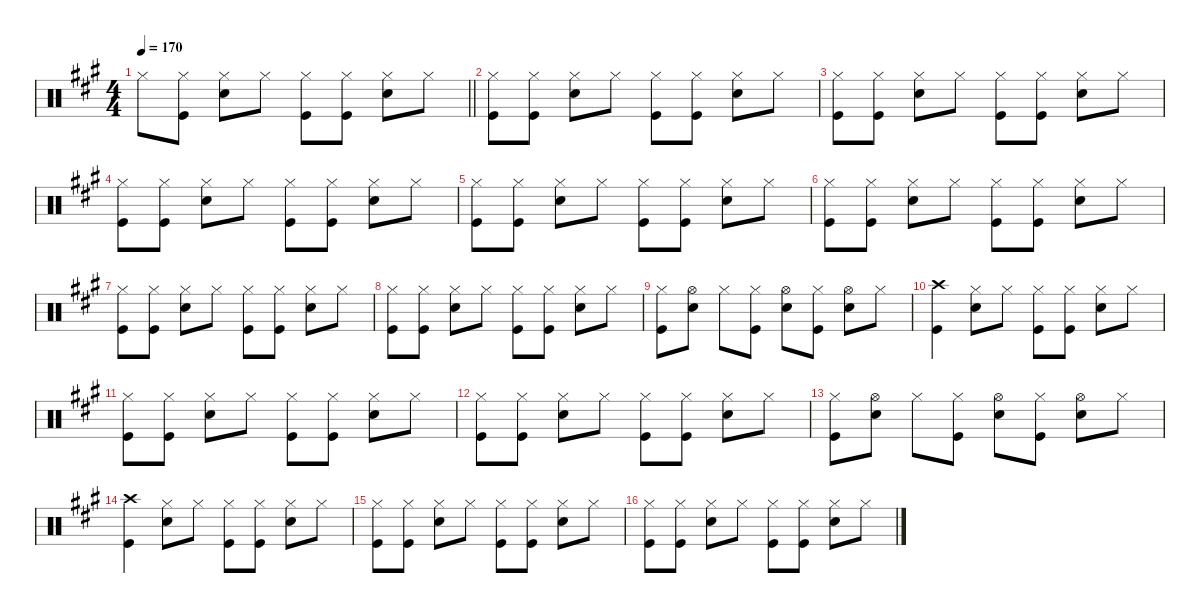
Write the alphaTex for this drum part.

\defaultSystemsLayout 4
\hideDynamics
\bracketExtendMode nobrackets
\singleTrackTrackNamePolicy hidden
\multiTrackTrackNamePolicy hidden
\firstSystemTrackNameMode fullname
\firstSystemTrackNameOrientation horizontal
\otherSystemsTrackNameOrientation horizontal
\track ("Percussion" "drm.") {defaultSystemsLayout 4 instrument percussion}
\staff {score}
\articulation defaults
\ts (4 4)
\tempo 170
\clef neutral
\barLineRight lightlight
\ks a "Hi-Hat (closed)"{acc forcenatural}.8{dy f beam Down}
("Hi-Hat (closed)"{acc forcenatural} "Kick (hit)"{acc forcenatural}).8{beam Down} ("Hi-Hat (closed)"{acc forcenatural} "Snare (hit) 2"{acc forcenatural}).8{beam Down} "Hi-Hat (closed)"{acc forcenatural}.8{beam Down} ("Hi-Hat (closed)"{acc forcenatural} "Kick (hit)"{acc forcenatural}).8{beam Down} ("Hi-Hat (closed)"{acc forcenatural} "Kick (hit)"{acc forcenatural}).8{beam Down} ("Hi-Hat (closed)"{acc forcenatural} "Snare (hit) 2"{acc forcenatural}).8{beam Down} "Hi-Hat (closed)"{acc forcenatural}.8{beam Down} |
("Hi-Hat (closed)"{acc forcenatural} "Kick (hit)"{acc forcenatural}).8{beam Down} ("Hi-Hat (closed)"{acc forcenatural} "Kick (hit)"{acc forcenatural}).8{beam Down} ("Hi-Hat (closed)"{acc forcenatural} "Snare (hit) 2"{acc forcenatural}).8{beam Down} "Hi-Hat (closed)"{acc forcenatural}.8{beam Down} ("Hi-Hat (closed)"{acc forcenatural} "Kick (hit)"{acc forcenatural}).8{beam Down} ("Hi-Hat (closed)"{acc forcenatural} "Kick (hit)"{acc forcenatural}).8{beam Down} ("Hi-Hat (closed)"{acc forcenatural} "Snare (hit) 2"{acc forcenatural}).8{beam Down} "Hi-Hat (closed)"{acc forcenatural}.8{beam Down} |
("Hi-Hat (closed)"{acc forcenatural} "Kick (hit)"{acc forcenatural}).8{beam Down} ("Hi-Hat (closed)"{acc forcenatural} "Kick (hit)"{acc forcenatural}).8{beam Down} ("Hi-Hat (closed)"{acc forcenatural} "Snare (hit) 2"{acc forcenatural}).8{beam Down} "Hi-Hat (closed)"{acc forcenatural}.8{beam Down} ("Hi-Hat (closed)"{acc forcenatural} "Kick (hit)"{acc forcenatural}).8{beam Down} ("Hi-Hat (closed)"{acc forcenatural} "Kick (hit)"{acc forcenatural}).8{beam Down} ("Hi-Hat (closed)"{acc forcenatural} "Snare (hit) 2"{acc forcenatural}).8{beam Down} "Hi-Hat (closed)"{acc forcenatural}.8{beam Down} |
("Hi-Hat (closed)"{acc forcenatural} "Kick (hit)"{acc forcenatural}).8{beam Down} ("Hi-Hat (closed)"{acc forcenatural} "Kick (hit)"{acc forcenatural}).8{beam Down} ("Hi-Hat (closed)"{acc forcenatural} "Snare (hit) 2"{acc forcenatural}).8{beam Down} "Hi-Hat (closed)"{acc forcenatural}.8{beam Down} ("Hi-Hat (closed)"{acc forcenatural} "Kick (hit)"{acc forcenatural}).8{beam Down} ("Hi-Hat (closed)"{acc forcenatural} "Kick (hit)"{acc forcenatural}).8{beam Down} ("Hi-Hat (closed)"{acc forcenatural} "Snare (hit) 2"{acc forcenatural}).8{beam Down} "Hi-Hat (closed)"{acc forcenatural}.8{beam Down} |
("Hi-Hat (closed)"{acc forcenatural} "Kick (hit)"{acc forcenatural}).8{beam Down} ("Hi-Hat (closed)"{acc forcenatural} "Kick (hit)"{acc forcenatural}).8{beam Down} ("Hi-Hat (closed)"{acc forcenatural} "Snare (hit) 2"{acc forcenatural}).8{beam Down} "Hi-Hat (closed)"{acc forcenatural}.8{beam Down} ("Hi-Hat (closed)"{acc forcenatural} "Kick (hit)"{acc forcenatural}).8{beam Down} ("Hi-Hat (closed)"{acc forcenatural} "Kick (hit)"{acc forcenatural}).8{beam Down} ("Hi-Hat (closed)"{acc forcenatural} "Snare (hit) 2"{acc forcenatural}).8{beam Down} "Hi-Hat (closed)"{acc forcenatural}.8{beam Down} |
("Hi-Hat (closed)"{acc forcenatural} "Kick (hit)"{acc forcenatural}).8{beam Down} ("Hi-Hat (closed)"{acc forcenatural} "Kick (hit)"{acc forcenatural}).8{beam Down} ("Hi-Hat (closed)"{acc forcenatural} "Snare (hit) 2"{acc forcenatural}).8{beam Down} "Hi-Hat (closed)"{acc forcenatural}.8{beam Down} ("Hi-Hat (closed)"{acc forcenatural} "Kick (hit)"{acc forcenatural}).8{beam Down} ("Hi-Hat (closed)"{acc forcenatural} "Kick (hit)"{acc forcenatural}).8{beam Down} ("Hi-Hat (closed)"{acc forcenatural} "Snare (hit) 2"{acc forcenatural}).8{beam Down} "Hi-Hat (closed)"{acc forcenatural}.8{beam Down} |
("Hi-Hat (closed)"{acc forcenatural} "Kick (hit)"{acc forcenatural}).8{beam Down} ("Hi-Hat (closed)"{acc forcenatural} "Kick (hit)"{acc forcenatural}).8{beam Down} ("Hi-Hat (closed)"{acc forcenatural} "Snare (hit) 2"{acc forcenatural}).8{beam Down} "Hi-Hat (closed)"{acc forcenatural}.8{beam Down} ("Hi-Hat (closed)"{acc forcenatural} "Kick (hit)"{acc forcenatural}).8{beam Down} ("Hi-Hat (closed)"{acc forcenatural} "Kick (hit)"{acc forcenatural}).8{beam Down} ("Hi-Hat (closed)"{acc forcenatural} "Snare (hit) 2"{acc forcenatural}).8{beam Down} "Hi-Hat (closed)"{acc forcenatural}.8{beam Down} |
("Hi-Hat (closed)"{acc forcenatural} "Kick (hit)"{acc forcenatural}).8{beam Down} ("Hi-Hat (closed)"{acc forcenatural} "Kick (hit)"{acc forcenatural}).8{beam Down} ("Hi-Hat (closed)"{acc forcenatural} "Snare (hit) 2"{acc forcenatural}).8{beam Down} "Hi-Hat (closed)"{acc forcenatural}.8{beam Down} ("Hi-Hat (closed)"{acc forcenatural} "Kick (hit)"{acc forcenatural}).8{beam Down} ("Hi-Hat (closed)"{acc forcenatural} "Kick (hit)"{acc forcenatural}).8{beam Down} ("Hi-Hat (closed)"{acc forcenatural} "Snare (hit) 2"{acc forcenatural}).8{beam Down} "Hi-Hat (closed)"{acc forcenatural}.8{beam Down} |
("Hi-Hat (closed)"{acc forcenatural} "Kick (hit)"{acc forcenatural}).8{beam Down} ("Hi-Hat (open)"{acc forcenatural} "Snare (hit) 2"{acc forcenatural}).8{beam Down} "Hi-Hat (closed)"{acc forcenatural}.8{beam Down} ("Hi-Hat (closed)"{acc forcenatural} "Kick (hit)"{acc forcenatural}).8{beam Down} ("Hi-Hat (open)"{acc forcenatural} "Snare (hit) 2"{acc forcenatural}).8{beam Down} ("Hi-Hat (closed)"{acc forcenatural} "Kick (hit)"{acc forcenatural}).8{beam Down} ("Hi-Hat (open)"{acc forcenatural} "Snare (hit) 2"{acc forcenatural}).8{beam Down} "Hi-Hat (closed)"{acc forcenatural}.8{beam Down} |
("Crash high (hit)"{acc forcenatural} "Kick (hit)"{acc forcenatural}).4{beam Down} ("Hi-Hat (closed)"{acc forcenatural} "Snare (hit) 2"{acc forcenatural}).8{beam Down} "Hi-Hat (closed)"{acc forcenatural}.8{beam Down} ("Hi-Hat (closed)"{acc forcenatural} "Kick (hit)"{acc forcenatural}).8{beam Down} ("Hi-Hat (closed)"{acc forcenatural} "Kick (hit)"{acc forcenatural}).8{beam Down} ("Hi-Hat (closed)"{acc forcenatural} "Snare (hit) 2"{acc forcenatural}).8{beam Down} "Hi-Hat (closed)"{acc forcenatural}.8{beam Down} |
("Hi-Hat (closed)"{acc forcenatural} "Kick (hit)"{acc forcenatural}).8{beam Down} ("Hi-Hat (closed)"{acc forcenatural} "Kick (hit)"{acc forcenatural}).8{beam Down} ("Hi-Hat (closed)"{acc forcenatural} "Snare (hit) 2"{acc forcenatural}).8{beam Down} "Hi-Hat (closed)"{acc forcenatural}.8{beam Down} ("Hi-Hat (closed)"{acc forcenatural} "Kick (hit)"{acc forcenatural}).8{beam Down} ("Hi-Hat (closed)"{acc forcenatural} "Kick (hit)"{acc forcenatural}).8{beam Down} ("Hi-Hat (closed)"{acc forcenatural} "Snare (hit) 2"{acc forcenatural}).8{beam Down} "Hi-Hat (closed)"{acc forcenatural}.8{beam Down} |
("Hi-Hat (closed)"{acc forcenatural} "Kick (hit)"{acc forcenatural}).8{beam Down} ("Hi-Hat (closed)"{acc forcenatural} "Kick (hit)"{acc forcenatural}).8{beam Down} ("Hi-Hat (closed)"{acc forcenatural} "Snare (hit) 2"{acc forcenatural}).8{beam Down} "Hi-Hat (closed)"{acc forcenatural}.8{beam Down} ("Hi-Hat (closed)"{acc forcenatural} "Kick (hit)"{acc forcenatural}).8{beam Down} ("Hi-Hat (closed)"{acc forcenatural} "Kick (hit)"{acc forcenatural}).8{beam Down} ("Hi-Hat (closed)"{acc forcenatural} "Snare (hit) 2"{acc forcenatural}).8{beam Down} "Hi-Hat (closed)"{acc forcenatural}.8{beam Down} |
("Hi-Hat (closed)"{acc forcenatural} "Kick (hit)"{acc forcenatural}).8{beam Down} ("Hi-Hat (open)"{acc forcenatural} "Snare (hit) 2"{acc forcenatural}).8{beam Down} "Hi-Hat (closed)"{acc forcenatural}.8{beam Down} ("Hi-Hat (closed)"{acc forcenatural} "Kick (hit)"{acc forcenatural}).8{beam Down} ("Hi-Hat (open)"{acc forcenatural} "Snare (hit) 2"{acc forcenatural}).8{beam Down} ("Hi-Hat (closed)"{acc forcenatural} "Kick (hit)"{acc forcenatural}).8{beam Down} ("Hi-Hat (open)"{acc forcenatural} "Snare (hit) 2"{acc forcenatural}).8{beam Down} "Hi-Hat (closed)"{acc forcenatural}.8{beam Down} |
("Crash high (hit)"{acc forcenatural} "Kick (hit)"{acc forcenatural}).4{beam Down} ("Hi-Hat (closed)"{acc forcenatural} "Snare (hit) 2"{acc forcenatural}).8{beam Down} "Hi-Hat (closed)"{acc forcenatural}.8{beam Down} ("Hi-Hat (closed)"{acc forcenatural} "Kick (hit)"{acc forcenatural}).8{beam Down} ("Hi-Hat (closed)"{acc forcenatural} "Kick (hit)"{acc forcenatural}).8{beam Down} ("Hi-Hat (closed)"{acc forcenatural} "Snare (hit) 2"{acc forcenatural}).8{beam Down} "Hi-Hat (closed)"{acc forcenatural}.8{beam Down} |
("Hi-Hat (closed)"{acc forcenatural} "Kick (hit)"{acc forcenatural}).8{beam Down} ("Hi-Hat (closed)"{acc forcenatural} "Kick (hit)"{acc forcenatural}).8{beam Down} ("Hi-Hat (closed)"{acc forcenatural} "Snare (hit) 2"{acc forcenatural}).8{beam Down} "Hi-Hat (closed)"{acc forcenatural}.8{beam Down} ("Hi-Hat (closed)"{acc forcenatural} "Kick (hit)"{acc forcenatural}).8{beam Down} ("Hi-Hat (closed)"{acc forcenatural} "Kick (hit)"{acc forcenatural}).8{beam Down} ("Hi-Hat (closed)"{acc forcenatural} "Snare (hit) 2"{acc forcenatural}).8{beam Down} "Hi-Hat (closed)"{acc forcenatural}.8{beam Down} |
("Hi-Hat (closed)"{acc forcenatural} "Kick (hit)"{acc forcenatural}).8{beam Down} ("Hi-Hat (closed)"{acc forcenatural} "Kick (hit)"{acc forcenatural}).8{beam Down} ("Hi-Hat (closed)"{acc forcenatural} "Snare (hit) 2"{acc forcenatural}).8{beam Down} "Hi-Hat (closed)"{acc forcenatural}.8{beam Down} ("Hi-Hat (closed)"{acc forcenatural} "Kick (hit)"{acc forcenatural}).8{beam Down} ("Hi-Hat (closed)"{acc forcenatural} "Kick (hit)"{acc forcenatural}).8{beam Down} ("Hi-Hat (closed)"{acc forcenatural} "Snare (hit) 2"{acc forcenatural}).8{beam Down} "Hi-Hat (closed)"{acc forcenatural}.8{beam Down}
